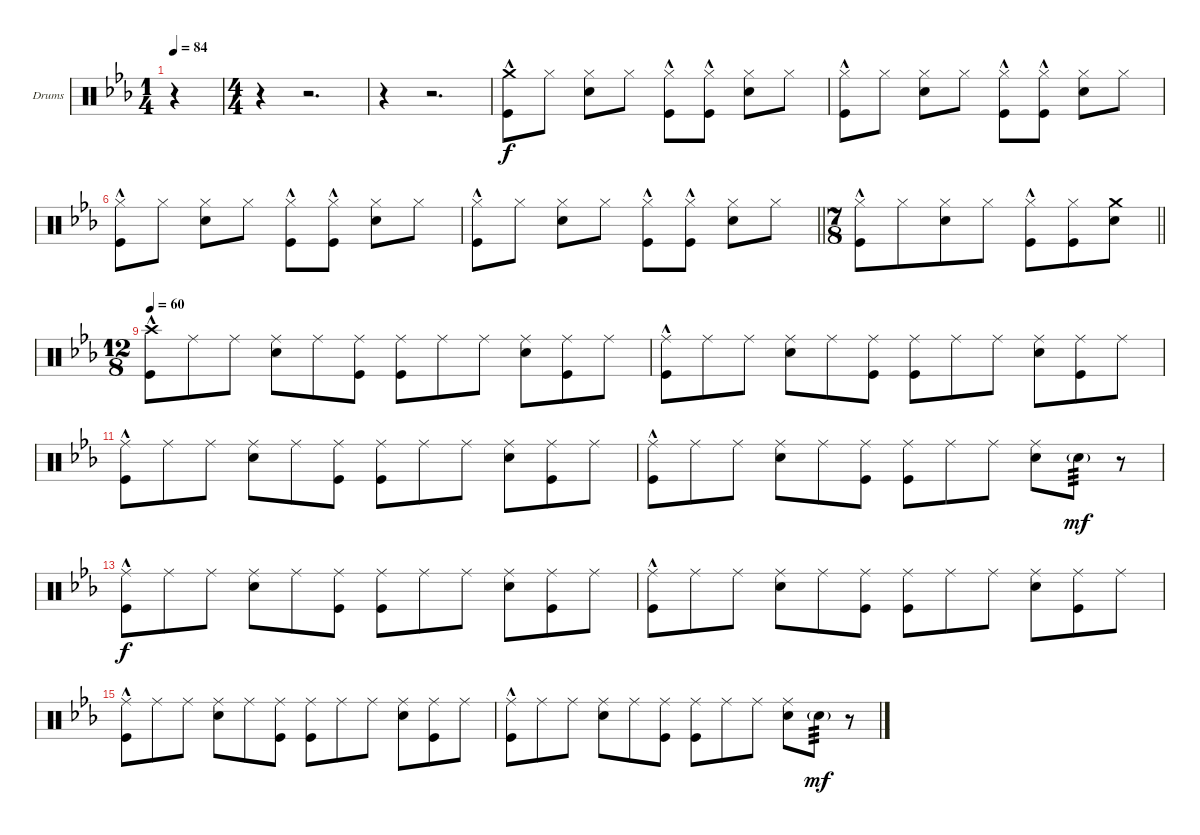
\bracketExtendMode nobrackets
\firstSystemTrackNameOrientation horizontal
\otherSystemsTrackNameOrientation horizontal
\defaultBarNumberDisplay FirstOfSystem
\track ("Drumkit" "Drums") {instrument percussion}
\staff {score}
\articulation defaults
\ts (1 4)
\tempo 84
\clef neutral
\scale
0.525
\ks cminor
r.4{dy f} |
\ts (4 4)
\scale
0.2375 r.4 r.2{d} |
\scale
0.2375 r.4 r.2{d} |
\scale
0.333333 ("Crash medium (hit)" "Kick (hit)"{hac}).8 "Hi-Hat (closed)".8 ("Hi-Hat (closed)" "Snare (hit) 2").8 "Hi-Hat (closed)".8 ("Hi-Hat (closed)" "Kick (hit)"{hac}).8 ("Hi-Hat (closed)" "Kick (hit)"{hac}).8 ("Hi-Hat (closed)" "Snare (hit) 2").8 "Hi-Hat (closed)".8 |
\scale
0.333333 ("Hi-Hat (closed)" "Kick (hit)"{hac}).8 "Hi-Hat (closed)".8 ("Hi-Hat (closed)" "Snare (hit) 2").8 "Hi-Hat (closed)".8 ("Hi-Hat (closed)" "Kick (hit)"{hac}).8 ("Hi-Hat (closed)" "Kick (hit)"{hac}).8 ("Hi-Hat (closed)" "Snare (hit) 2").8 "Hi-Hat (closed)".8 |
\scale
0.333333 ("Hi-Hat (closed)" "Kick (hit)"{hac}).8 "Hi-Hat (closed)".8 ("Hi-Hat (closed)" "Snare (hit) 2").8 "Hi-Hat (closed)".8 ("Hi-Hat (closed)" "Kick (hit)"{hac}).8 ("Hi-Hat (closed)" "Kick (hit)"{hac}).8 ("Hi-Hat (closed)" "Snare (hit) 2").8 "Hi-Hat (closed)".8 |
\scale
0.260274
\barLineRight lightlight
("Hi-Hat (closed)" "Kick (hit)"{hac}).8 "Hi-Hat (closed)".8 ("Hi-Hat (closed)" "Snare (hit) 2").8 "Hi-Hat (closed)".8 ("Hi-Hat (closed)" "Kick (hit)"{hac}).8 ("Hi-Hat (closed)" "Kick (hit)"{hac}).8 ("Hi-Hat (closed)" "Snare (hit) 2").8 "Hi-Hat (closed)".8 |
\ts (7 8)
\scale
0.369863
\barLineRight lightlight
("Hi-Hat (closed)" "Kick (hit)"{hac}).8 "Hi-Hat (closed)".8 ("Hi-Hat (closed)" "Snare (hit) 2").8 "Hi-Hat (closed)".8 ("Hi-Hat (closed)" "Kick (hit)"{hac}).8 ("Hi-Hat (closed)" "Kick (hit)").8 ("Crash medium (hit)" "Snare (hit) 2").8 |
\ts (12 8)
\tempo 60
\scale
0.369863 ("Crash high (hit)" "Kick (hit)"{hac}).8 "Ride (middle)".8 "Ride (middle)".8 ("Ride (middle)" "Snare (hit) 2").8 "Ride (middle)".8 ("Ride (middle)" "Kick (hit)").8 ("Ride (middle)" "Kick (hit)").8 "Ride (middle)".8 "Ride (middle)".8 ("Ride (middle)" "Snare (hit) 2").8 ("Ride (middle)" "Kick (hit)").8 "Ride (middle)".8 |
\scale
0.333333 ("Ride (middle)" "Kick (hit)"{hac}).8 "Ride (middle)".8 "Ride (middle)".8 ("Ride (middle)" "Snare (hit) 2").8 "Ride (middle)".8 ("Ride (middle)" "Kick (hit)").8 ("Ride (middle)" "Kick (hit)").8 "Ride (middle)".8 "Ride (middle)".8 ("Ride (middle)" "Snare (hit) 2").8 ("Ride (middle)" "Kick (hit)").8 "Ride (middle)".8 |
\scale
0.333333 ("Ride (middle)" "Kick (hit)"{hac}).8 "Ride (middle)".8 "Ride (middle)".8 ("Ride (middle)" "Snare (hit) 2").8 "Ride (middle)".8 ("Ride (middle)" "Kick (hit)").8 ("Ride (middle)" "Kick (hit)").8 "Ride (middle)".8 "Ride (middle)".8 ("Ride (middle)" "Snare (hit) 2").8 ("Ride (middle)" "Kick (hit)").8 "Ride (middle)".8 |
\scale
0.333333 ("Ride (middle)" "Kick (hit)"{hac}).8 "Ride (middle)".8 "Ride (middle)".8 ("Ride (middle)" "Snare (hit) 2").8 "Ride (middle)".8 ("Ride (middle)" "Kick (hit)").8 ("Ride (middle)" "Kick (hit)").8 "Ride (middle)".8 "Ride (middle)".8 ("Ride (middle)" "Snare (hit) 2").8 "Snare (hit) 2"{g}.8{tp 3 dy mf} r.8 |
\scale
0.333333 ("Ride (middle)" "Kick (hit)"{hac}).8{dy f} "Ride (middle)".8 "Ride (middle)".8 ("Ride (middle)" "Snare (hit) 2").8 "Ride (middle)".8 ("Ride (middle)" "Kick (hit)").8 ("Ride (middle)" "Kick (hit)").8 "Ride (middle)".8 "Ride (middle)".8 ("Ride (middle)" "Snare (hit) 2").8 ("Ride (middle)" "Kick (hit)").8 "Ride (middle)".8 |
\scale
0.333333 ("Ride (middle)" "Kick (hit)"{hac}).8 "Ride (middle)".8 "Ride (middle)".8 ("Ride (middle)" "Snare (hit) 2").8 "Ride (middle)".8 ("Ride (middle)" "Kick (hit)").8 ("Ride (middle)" "Kick (hit)").8 "Ride (middle)".8 "Ride (middle)".8 ("Ride (middle)" "Snare (hit) 2").8 ("Ride (middle)" "Kick (hit)").8 "Ride (middle)".8 |
\scale
0.333333 ("Ride (middle)" "Kick (hit)"{hac}).8 "Ride (middle)".8 "Ride (middle)".8 ("Ride (middle)" "Snare (hit) 2").8 "Ride (middle)".8 ("Ride (middle)" "Kick (hit)").8 ("Ride (middle)" "Kick (hit)").8 "Ride (middle)".8 "Ride (middle)".8 ("Ride (middle)" "Snare (hit) 2").8 ("Ride (middle)" "Kick (hit)").8 "Ride (middle)".8 |
\scale
0.333333 ("Ride (middle)" "Kick (hit)"{hac}).8 "Ride (middle)".8 "Ride (middle)".8 ("Ride (middle)" "Snare (hit) 2").8 "Ride (middle)".8 ("Ride (middle)" "Kick (hit)").8 ("Ride (middle)" "Kick (hit)").8 "Ride (middle)".8 "Ride (middle)".8 ("Ride (middle)" "Snare (hit) 2").8 "Snare (hit) 2"{g}.8{tp 3 dy mf} r.8
